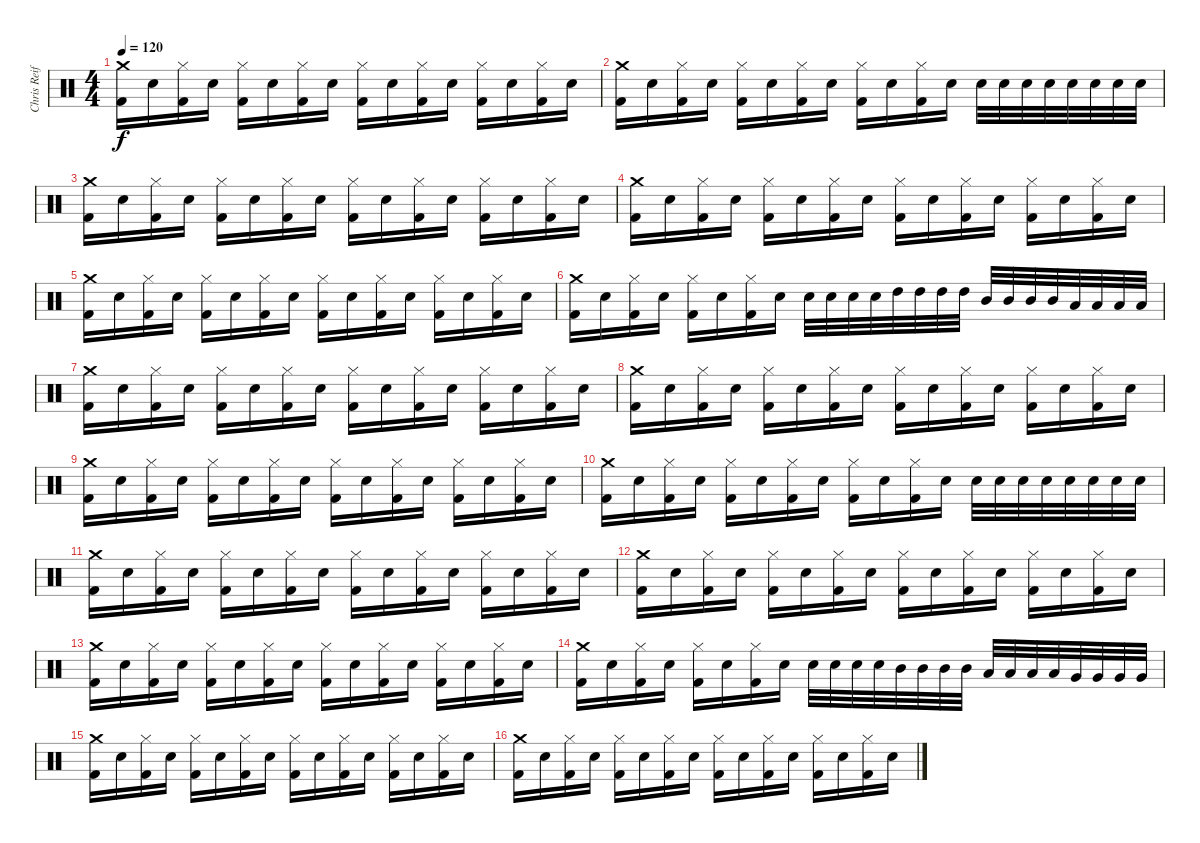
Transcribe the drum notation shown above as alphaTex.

\track ("Chris Reifert" "Chris Reif") {instrument percussion}
\staff {score}
\articulation defaults
\ts (4 4)
\tempo 120
\clef neutral
\ks c
("Crash medium (hit)" "Kick (hit) 2").16{dy f} "Electric Snare (hit)".16 ("Hi-Hat (closed)" "Kick (hit) 2").16 "Electric Snare (hit)".16 ("Hi-Hat (closed)" "Kick (hit) 2").16 "Electric Snare (hit)".16 ("Hi-Hat (closed)" "Kick (hit) 2").16 "Electric Snare (hit)".16 ("Hi-Hat (closed)" "Kick (hit) 2").16 "Electric Snare (hit)".16 ("Hi-Hat (closed)" "Kick (hit) 2").16 "Electric Snare (hit)".16 ("Hi-Hat (closed)" "Kick (hit) 2").16 "Electric Snare (hit)".16 ("Hi-Hat (closed)" "Kick (hit) 2").16 "Electric Snare (hit)".16 |
("Crash medium (hit)" "Kick (hit) 2").16 "Electric Snare (hit)".16 ("Hi-Hat (closed)" "Kick (hit) 2").16 "Electric Snare (hit)".16 ("Hi-Hat (closed)" "Kick (hit) 2").16 "Electric Snare (hit)".16 ("Hi-Hat (closed)" "Kick (hit) 2").16 "Electric Snare (hit)".16 ("Hi-Hat (closed)" "Kick (hit) 2").16 "Electric Snare (hit)".16 ("Hi-Hat (closed)" "Kick (hit) 2").16 "Electric Snare (hit)".16 "Electric Snare (hit)".32 "Electric Snare (hit)".32 "Electric Snare (hit)".32 "Electric Snare (hit)".32 "Electric Snare (hit)".32 "Electric Snare (hit)".32 "Electric Snare (hit)".32 "Electric Snare (hit)".32 |
("Crash medium (hit)" "Kick (hit) 2").16 "Electric Snare (hit)".16 ("Hi-Hat (closed)" "Kick (hit) 2").16 "Electric Snare (hit)".16 ("Hi-Hat (closed)" "Kick (hit) 2").16 "Electric Snare (hit)".16 ("Hi-Hat (closed)" "Kick (hit) 2").16 "Electric Snare (hit)".16 ("Hi-Hat (closed)" "Kick (hit) 2").16 "Electric Snare (hit)".16 ("Hi-Hat (closed)" "Kick (hit) 2").16 "Electric Snare (hit)".16 ("Hi-Hat (closed)" "Kick (hit) 2").16 "Electric Snare (hit)".16 ("Hi-Hat (closed)" "Kick (hit) 2").16 "Electric Snare (hit)".16 |
("Crash medium (hit)" "Kick (hit) 2").16 "Electric Snare (hit)".16 ("Hi-Hat (closed)" "Kick (hit) 2").16 "Electric Snare (hit)".16 ("Hi-Hat (closed)" "Kick (hit) 2").16 "Electric Snare (hit)".16 ("Hi-Hat (closed)" "Kick (hit) 2").16 "Electric Snare (hit)".16 ("Hi-Hat (closed)" "Kick (hit) 2").16 "Electric Snare (hit)".16 ("Hi-Hat (closed)" "Kick (hit) 2").16 "Electric Snare (hit)".16 ("Hi-Hat (closed)" "Kick (hit) 2").16 "Electric Snare (hit)".16 ("Hi-Hat (closed)" "Kick (hit) 2").16 "Electric Snare (hit)".16 |
("Crash medium (hit)" "Kick (hit) 2").16 "Electric Snare (hit)".16 ("Hi-Hat (closed)" "Kick (hit) 2").16 "Electric Snare (hit)".16 ("Hi-Hat (closed)" "Kick (hit) 2").16 "Electric Snare (hit)".16 ("Hi-Hat (closed)" "Kick (hit) 2").16 "Electric Snare (hit)".16 ("Hi-Hat (closed)" "Kick (hit) 2").16 "Electric Snare (hit)".16 ("Hi-Hat (closed)" "Kick (hit) 2").16 "Electric Snare (hit)".16 ("Hi-Hat (closed)" "Kick (hit) 2").16 "Electric Snare (hit)".16 ("Hi-Hat (closed)" "Kick (hit) 2").16 "Electric Snare (hit)".16 |
("Crash medium (hit)" "Kick (hit) 2").16 "Electric Snare (hit)".16 ("Hi-Hat (closed)" "Kick (hit) 2").16 "Electric Snare (hit)".16 ("Hi-Hat (closed)" "Kick (hit) 2").16 "Electric Snare (hit)".16 ("Hi-Hat (closed)" "Kick (hit) 2").16 "Electric Snare (hit)".16 "Electric Snare (hit)".32 "Electric Snare (hit)".32 "Electric Snare (hit)".32 "Electric Snare (hit)".32 "High Tom (hit)".32 "High Tom (hit)".32 "High Tom (hit)".32 "High Tom (hit)".32 "Mid Tom (hit)".32 "Mid Tom (hit)".32 "Mid Tom (hit)".32 "Mid Tom (hit)".32 "Low Tom (hit)".32 "Low Tom (hit)".32 "Low Tom (hit)".32 "Low Tom (hit)".32 |
("Crash medium (hit)" "Kick (hit) 2").16 "Electric Snare (hit)".16 ("Hi-Hat (closed)" "Kick (hit) 2").16 "Electric Snare (hit)".16 ("Hi-Hat (closed)" "Kick (hit) 2").16 "Electric Snare (hit)".16 ("Hi-Hat (closed)" "Kick (hit) 2").16 "Electric Snare (hit)".16 ("Hi-Hat (closed)" "Kick (hit) 2").16 "Electric Snare (hit)".16 ("Hi-Hat (closed)" "Kick (hit) 2").16 "Electric Snare (hit)".16 ("Hi-Hat (closed)" "Kick (hit) 2").16 "Electric Snare (hit)".16 ("Hi-Hat (closed)" "Kick (hit) 2").16 "Electric Snare (hit)".16 |
("Crash medium (hit)" "Kick (hit) 2").16 "Electric Snare (hit)".16 ("Hi-Hat (closed)" "Kick (hit) 2").16 "Electric Snare (hit)".16 ("Hi-Hat (closed)" "Kick (hit) 2").16 "Electric Snare (hit)".16 ("Hi-Hat (closed)" "Kick (hit) 2").16 "Electric Snare (hit)".16 ("Hi-Hat (closed)" "Kick (hit) 2").16 "Electric Snare (hit)".16 ("Hi-Hat (closed)" "Kick (hit) 2").16 "Electric Snare (hit)".16 ("Hi-Hat (closed)" "Kick (hit) 2").16 "Electric Snare (hit)".16 ("Hi-Hat (closed)" "Kick (hit) 2").16 "Electric Snare (hit)".16 |
("Crash medium (hit)" "Kick (hit) 2").16 "Electric Snare (hit)".16 ("Hi-Hat (closed)" "Kick (hit) 2").16 "Electric Snare (hit)".16 ("Hi-Hat (closed)" "Kick (hit) 2").16 "Electric Snare (hit)".16 ("Hi-Hat (closed)" "Kick (hit) 2").16 "Electric Snare (hit)".16 ("Hi-Hat (closed)" "Kick (hit) 2").16 "Electric Snare (hit)".16 ("Hi-Hat (closed)" "Kick (hit) 2").16 "Electric Snare (hit)".16 ("Hi-Hat (closed)" "Kick (hit) 2").16 "Electric Snare (hit)".16 ("Hi-Hat (closed)" "Kick (hit) 2").16 "Electric Snare (hit)".16 |
("Crash medium (hit)" "Kick (hit) 2").16 "Electric Snare (hit)".16 ("Hi-Hat (closed)" "Kick (hit) 2").16 "Electric Snare (hit)".16 ("Hi-Hat (closed)" "Kick (hit) 2").16 "Electric Snare (hit)".16 ("Hi-Hat (closed)" "Kick (hit) 2").16 "Electric Snare (hit)".16 ("Hi-Hat (closed)" "Kick (hit) 2").16 "Electric Snare (hit)".16 ("Hi-Hat (closed)" "Kick (hit) 2").16 "Electric Snare (hit)".16 "Electric Snare (hit)".32 "Electric Snare (hit)".32 "Electric Snare (hit)".32 "Electric Snare (hit)".32 "Electric Snare (hit)".32 "Electric Snare (hit)".32 "Electric Snare (hit)".32 "Electric Snare (hit)".32 |
("Crash medium (hit)" "Kick (hit) 2").16 "Electric Snare (hit)".16 ("Hi-Hat (closed)" "Kick (hit) 2").16 "Electric Snare (hit)".16 ("Hi-Hat (closed)" "Kick (hit) 2").16 "Electric Snare (hit)".16 ("Hi-Hat (closed)" "Kick (hit) 2").16 "Electric Snare (hit)".16 ("Hi-Hat (closed)" "Kick (hit) 2").16 "Electric Snare (hit)".16 ("Hi-Hat (closed)" "Kick (hit) 2").16 "Electric Snare (hit)".16 ("Hi-Hat (closed)" "Kick (hit) 2").16 "Electric Snare (hit)".16 ("Hi-Hat (closed)" "Kick (hit) 2").16 "Electric Snare (hit)".16 |
("Crash medium (hit)" "Kick (hit) 2").16 "Electric Snare (hit)".16 ("Hi-Hat (closed)" "Kick (hit) 2").16 "Electric Snare (hit)".16 ("Hi-Hat (closed)" "Kick (hit) 2").16 "Electric Snare (hit)".16 ("Hi-Hat (closed)" "Kick (hit) 2").16 "Electric Snare (hit)".16 ("Hi-Hat (closed)" "Kick (hit) 2").16 "Electric Snare (hit)".16 ("Hi-Hat (closed)" "Kick (hit) 2").16 "Electric Snare (hit)".16 ("Hi-Hat (closed)" "Kick (hit) 2").16 "Electric Snare (hit)".16 ("Hi-Hat (closed)" "Kick (hit) 2").16 "Electric Snare (hit)".16 |
("Crash medium (hit)" "Kick (hit) 2").16 "Electric Snare (hit)".16 ("Hi-Hat (closed)" "Kick (hit) 2").16 "Electric Snare (hit)".16 ("Hi-Hat (closed)" "Kick (hit) 2").16 "Electric Snare (hit)".16 ("Hi-Hat (closed)" "Kick (hit) 2").16 "Electric Snare (hit)".16 ("Hi-Hat (closed)" "Kick (hit) 2").16 "Electric Snare (hit)".16 ("Hi-Hat (closed)" "Kick (hit) 2").16 "Electric Snare (hit)".16 ("Hi-Hat (closed)" "Kick (hit) 2").16 "Electric Snare (hit)".16 ("Hi-Hat (closed)" "Kick (hit) 2").16 "Electric Snare (hit)".16 |
("Crash medium (hit)" "Kick (hit) 2").16 "Electric Snare (hit)".16 ("Hi-Hat (closed)" "Kick (hit) 2").16 "Electric Snare (hit)".16 ("Hi-Hat (closed)" "Kick (hit) 2").16 "Electric Snare (hit)".16 ("Hi-Hat (closed)" "Kick (hit) 2").16 "Electric Snare (hit)".16 "Electric Snare (hit)".32 "Electric Snare (hit)".32 "Electric Snare (hit)".32 "Electric Snare (hit)".32 "Mid Tom (hit)".32 "Mid Tom (hit)".32 "Mid Tom (hit)".32 "Mid Tom (hit)".32 "Low Tom (hit)".32 "Low Tom (hit)".32 "Low Tom (hit)".32 "Low Tom (hit)".32 "Very Low Tom (hit)".32 "Very Low Tom (hit)".32 "Very Low Tom (hit)".32 "Very Low Tom (hit)".32 |
("Crash medium (hit)" "Kick (hit) 2").16 "Electric Snare (hit)".16 ("Hi-Hat (closed)" "Kick (hit) 2").16 "Electric Snare (hit)".16 ("Hi-Hat (closed)" "Kick (hit) 2").16 "Electric Snare (hit)".16 ("Hi-Hat (closed)" "Kick (hit) 2").16 "Electric Snare (hit)".16 ("Hi-Hat (closed)" "Kick (hit) 2").16 "Electric Snare (hit)".16 ("Hi-Hat (closed)" "Kick (hit) 2").16 "Electric Snare (hit)".16 ("Hi-Hat (closed)" "Kick (hit) 2").16 "Electric Snare (hit)".16 ("Hi-Hat (closed)" "Kick (hit) 2").16 "Electric Snare (hit)".16 |
("Crash medium (hit)" "Kick (hit) 2").16 "Electric Snare (hit)".16 ("Hi-Hat (closed)" "Kick (hit) 2").16 "Electric Snare (hit)".16 ("Hi-Hat (closed)" "Kick (hit) 2").16 "Electric Snare (hit)".16 ("Hi-Hat (closed)" "Kick (hit) 2").16 "Electric Snare (hit)".16 ("Hi-Hat (closed)" "Kick (hit) 2").16 "Electric Snare (hit)".16 ("Hi-Hat (closed)" "Kick (hit) 2").16 "Electric Snare (hit)".16 ("Hi-Hat (closed)" "Kick (hit) 2").16 "Electric Snare (hit)".16 ("Hi-Hat (closed)" "Kick (hit) 2").16 "Electric Snare (hit)".16
